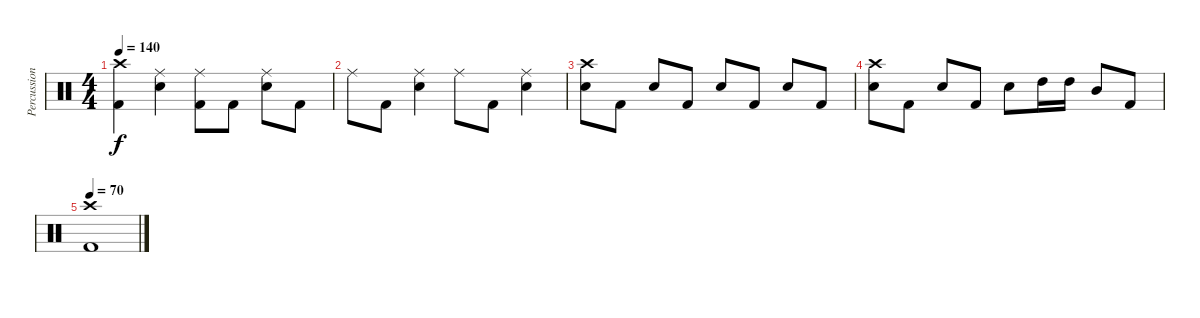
\track ("Percussion" "Percussion") {instrument percussion}
\staff {score}
\articulation defaults
\ts (4 4)
\tempo 140
\clef neutral
\ks c
("Kick (hit) 2" "Crash high (hit)").4{dy f} ("Snare (hit) 2" "Ride (middle)").4 ("Kick (hit) 2" "Ride (middle)").8 "Kick (hit) 2".8 ("Snare (hit) 2" "Ride (middle)").8 "Kick (hit) 2".8 |
"Ride (middle)".8 "Kick (hit) 2".8 ("Snare (hit) 2" "Ride (middle)").4 "Ride (middle)".8 "Kick (hit) 2".8 ("Snare (hit) 2" "Ride (middle)").4 |
("Snare (hit) 2" "Crash high (hit)").8 "Kick (hit) 2".8 "Snare (hit) 2".8 "Kick (hit) 2".8 "Snare (hit) 2".8 "Kick (hit) 2".8 "Snare (hit) 2".8 "Kick (hit) 2".8 |
("Snare (hit) 2" "Crash high (hit)").8 "Kick (hit) 2".8 "Snare (hit) 2".8 "Kick (hit) 2".8 "Snare (hit) 2".8 "High Tom (hit)".16 "High Tom (hit)".16 "Mid Tom (hit)".8 "Kick (hit) 2".8 |
\tempo 70
("Kick (hit) 2" "Crash high (hit)").1
